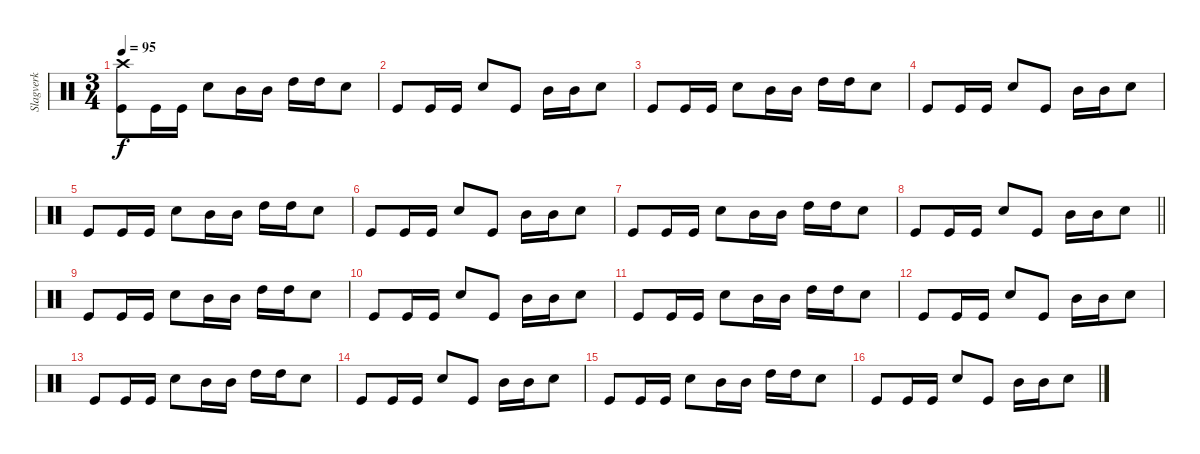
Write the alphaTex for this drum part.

\track ("Slagverk" "Slagverk") {instrument percussion}
\staff {score}
\articulation defaults
\ts (3 4)
\tempo 95
\clef neutral
\ks c
("Crash high (hit)" "Kick (hit)").8{dy f} "Kick (hit)".16 "Kick (hit)".16 "Snare (hit) 2".8 "Mid Tom (hit)".16 "Mid Tom (hit)".16 "High Tom (hit)".16 "High Tom (hit)".16 "Snare (hit) 2".8 |
"Kick (hit)".8 "Kick (hit)".16 "Kick (hit)".16 "Snare (hit) 2".8 "Kick (hit)".8 "Mid Tom (hit)".16 "Mid Tom (hit)".16 "Snare (hit) 2".8 |
"Kick (hit)".8 "Kick (hit)".16 "Kick (hit)".16 "Snare (hit) 2".8 "Mid Tom (hit)".16 "Mid Tom (hit)".16 "High Tom (hit)".16 "High Tom (hit)".16 "Snare (hit) 2".8 |
"Kick (hit)".8 "Kick (hit)".16 "Kick (hit)".16 "Snare (hit) 2".8 "Kick (hit)".8 "Mid Tom (hit)".16 "Mid Tom (hit)".16 "Snare (hit) 2".8 |
"Kick (hit)".8 "Kick (hit)".16 "Kick (hit)".16 "Snare (hit) 2".8 "Mid Tom (hit)".16 "Mid Tom (hit)".16 "High Tom (hit)".16 "High Tom (hit)".16 "Snare (hit) 2".8 |
"Kick (hit)".8 "Kick (hit)".16 "Kick (hit)".16 "Snare (hit) 2".8 "Kick (hit)".8 "Mid Tom (hit)".16 "Mid Tom (hit)".16 "Snare (hit) 2".8 |
"Kick (hit)".8 "Kick (hit)".16 "Kick (hit)".16 "Snare (hit) 2".8 "Mid Tom (hit)".16 "Mid Tom (hit)".16 "High Tom (hit)".16 "High Tom (hit)".16 "Snare (hit) 2".8 |
\barLineRight lightlight "Kick (hit)".8 "Kick (hit)".16 "Kick (hit)".16 "Snare (hit) 2".8 "Kick (hit)".8 "Mid Tom (hit)".16 "Mid Tom (hit)".16 "Snare (hit) 2".8
|
"Kick (hit)".8 "Kick (hit)".16 "Kick (hit)".16 "Snare (hit) 2".8 "Mid Tom (hit)".16 "Mid Tom (hit)".16 "High Tom (hit)".16 "High Tom (hit)".16 "Snare (hit) 2".8 |
"Kick (hit)".8 "Kick (hit)".16 "Kick (hit)".16 "Snare (hit) 2".8 "Kick (hit)".8 "Mid Tom (hit)".16 "Mid Tom (hit)".16 "Snare (hit) 2".8 |
"Kick (hit)".8 "Kick (hit)".16 "Kick (hit)".16 "Snare (hit) 2".8 "Mid Tom (hit)".16 "Mid Tom (hit)".16 "High Tom (hit)".16 "High Tom (hit)".16 "Snare (hit) 2".8 |
"Kick (hit)".8 "Kick (hit)".16 "Kick (hit)".16 "Snare (hit) 2".8 "Kick (hit)".8 "Mid Tom (hit)".16 "Mid Tom (hit)".16 "Snare (hit) 2".8 |
"Kick (hit)".8 "Kick (hit)".16 "Kick (hit)".16 "Snare (hit) 2".8 "Mid Tom (hit)".16 "Mid Tom (hit)".16 "High Tom (hit)".16 "High Tom (hit)".16 "Snare (hit) 2".8 |
"Kick (hit)".8 "Kick (hit)".16 "Kick (hit)".16 "Snare (hit) 2".8 "Kick (hit)".8 "Mid Tom (hit)".16 "Mid Tom (hit)".16 "Snare (hit) 2".8 |
"Kick (hit)".8 "Kick (hit)".16 "Kick (hit)".16 "Snare (hit) 2".8 "Mid Tom (hit)".16 "Mid Tom (hit)".16 "High Tom (hit)".16 "High Tom (hit)".16 "Snare (hit) 2".8 |
"Kick (hit)".8 "Kick (hit)".16 "Kick (hit)".16 "Snare (hit) 2".8 "Kick (hit)".8 "Mid Tom (hit)".16 "Mid Tom (hit)".16 "Snare (hit) 2".8
